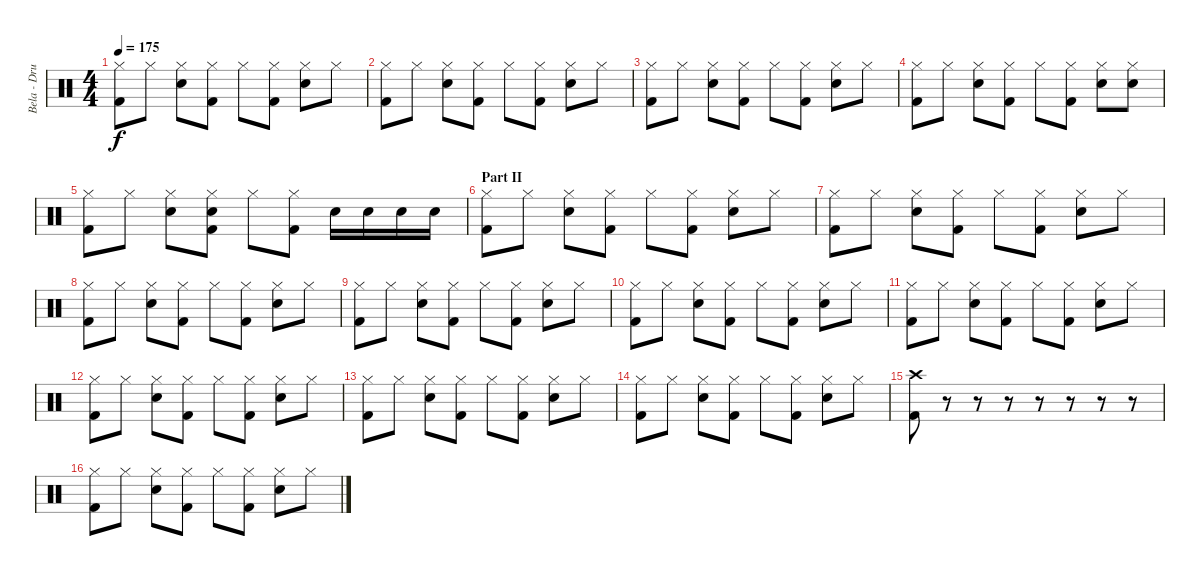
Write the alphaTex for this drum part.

\track ("Bela - Drums" "Bela - Dru") {instrument percussion}
\staff {score}
\articulation defaults
\ts (4 4)
\tempo 175
\clef neutral
\ks c
("Hi-Hat (closed)" "Kick (hit) 2").8{dy f} "Hi-Hat (closed)".8 ("Hi-Hat (closed)" "Electric Snare (hit)").8 ("Hi-Hat (closed)" "Kick (hit) 2").8 "Hi-Hat (closed)".8 ("Hi-Hat (closed)" "Kick (hit) 2").8 ("Hi-Hat (closed)" "Electric Snare (hit)").8 "Hi-Hat (closed)".8 |
("Hi-Hat (closed)" "Kick (hit) 2").8 "Hi-Hat (closed)".8 ("Hi-Hat (closed)" "Electric Snare (hit)").8 ("Hi-Hat (closed)" "Kick (hit) 2").8 "Hi-Hat (closed)".8 ("Hi-Hat (closed)" "Kick (hit) 2").8 ("Hi-Hat (closed)" "Electric Snare (hit)").8 "Hi-Hat (closed)".8 |
("Hi-Hat (closed)" "Kick (hit) 2").8 "Hi-Hat (closed)".8 ("Hi-Hat (closed)" "Electric Snare (hit)").8 ("Hi-Hat (closed)" "Kick (hit) 2").8 "Hi-Hat (closed)".8 ("Hi-Hat (closed)" "Kick (hit) 2").8 ("Hi-Hat (closed)" "Electric Snare (hit)").8 "Hi-Hat (closed)".8 |
("Hi-Hat (closed)" "Kick (hit) 2").8 "Hi-Hat (closed)".8 ("Hi-Hat (closed)" "Electric Snare (hit)").8 ("Hi-Hat (closed)" "Kick (hit) 2").8 "Hi-Hat (closed)".8 ("Hi-Hat (closed)" "Kick (hit) 2").8 ("Hi-Hat (closed)" "Electric Snare (hit)").8 ("Hi-Hat (closed)" "Electric Snare (hit)").8 |
("Hi-Hat (closed)" "Kick (hit) 2").8 "Hi-Hat (closed)".8 ("Hi-Hat (closed)" "Electric Snare (hit)").8 ("Hi-Hat (closed)" "Electric Snare (hit)" "Kick (hit) 2").8 "Hi-Hat (closed)".8 ("Hi-Hat (closed)" "Kick (hit) 2").8 "Electric Snare (hit)".16 "Electric Snare (hit)".16 "Electric Snare (hit)".16 "Electric Snare (hit)".16 |
\section ("" "Part II")
("Hi-Hat (closed)" "Kick (hit) 2").8 "Hi-Hat (closed)".8 ("Hi-Hat (closed)" "Electric Snare (hit)").8 ("Hi-Hat (closed)" "Kick (hit) 2").8 "Hi-Hat (closed)".8 ("Hi-Hat (closed)" "Kick (hit) 2").8 ("Hi-Hat (closed)" "Electric Snare (hit)").8 "Hi-Hat (closed)".8 |
("Hi-Hat (closed)" "Kick (hit) 2").8 "Hi-Hat (closed)".8 ("Hi-Hat (closed)" "Electric Snare (hit)").8 ("Hi-Hat (closed)" "Kick (hit) 2").8 "Hi-Hat (closed)".8 ("Hi-Hat (closed)" "Kick (hit) 2").8 ("Hi-Hat (closed)" "Electric Snare (hit)").8 "Hi-Hat (closed)".8 |
("Hi-Hat (closed)" "Kick (hit) 2").8 "Hi-Hat (closed)".8 ("Hi-Hat (closed)" "Electric Snare (hit)").8 ("Hi-Hat (closed)" "Kick (hit) 2").8 "Hi-Hat (closed)".8 ("Hi-Hat (closed)" "Kick (hit) 2").8 ("Hi-Hat (closed)" "Electric Snare (hit)").8 "Hi-Hat (closed)".8 |
("Hi-Hat (closed)" "Kick (hit) 2").8 "Hi-Hat (closed)".8 ("Hi-Hat (closed)" "Electric Snare (hit)").8 ("Hi-Hat (closed)" "Kick (hit) 2").8 "Hi-Hat (closed)".8 ("Hi-Hat (closed)" "Kick (hit) 2").8 ("Hi-Hat (closed)" "Electric Snare (hit)").8 "Hi-Hat (closed)".8 |
("Hi-Hat (closed)" "Kick (hit) 2").8 "Hi-Hat (closed)".8 ("Hi-Hat (closed)" "Electric Snare (hit)").8 ("Hi-Hat (closed)" "Kick (hit) 2").8 "Hi-Hat (closed)".8 ("Hi-Hat (closed)" "Kick (hit) 2").8 ("Hi-Hat (closed)" "Electric Snare (hit)").8 "Hi-Hat (closed)".8 |
("Hi-Hat (closed)" "Kick (hit) 2").8 "Hi-Hat (closed)".8 ("Hi-Hat (closed)" "Electric Snare (hit)").8 ("Hi-Hat (closed)" "Kick (hit) 2").8 "Hi-Hat (closed)".8 ("Hi-Hat (closed)" "Kick (hit) 2").8 ("Hi-Hat (closed)" "Electric Snare (hit)").8 "Hi-Hat (closed)".8 |
("Hi-Hat (closed)" "Kick (hit) 2").8 "Hi-Hat (closed)".8 ("Hi-Hat (closed)" "Electric Snare (hit)").8 ("Hi-Hat (closed)" "Kick (hit) 2").8 "Hi-Hat (closed)".8 ("Hi-Hat (closed)" "Kick (hit) 2").8 ("Hi-Hat (closed)" "Electric Snare (hit)").8 "Hi-Hat (closed)".8 |
("Hi-Hat (closed)" "Kick (hit) 2").8 "Hi-Hat (closed)".8 ("Hi-Hat (closed)" "Electric Snare (hit)").8 ("Hi-Hat (closed)" "Kick (hit) 2").8 "Hi-Hat (closed)".8 ("Hi-Hat (closed)" "Kick (hit) 2").8 ("Hi-Hat (closed)" "Electric Snare (hit)").8 "Hi-Hat (closed)".8 |
("Hi-Hat (closed)" "Kick (hit) 2").8 "Hi-Hat (closed)".8 ("Hi-Hat (closed)" "Electric Snare (hit)").8 ("Hi-Hat (closed)" "Kick (hit) 2").8 "Hi-Hat (closed)".8 ("Hi-Hat (closed)" "Kick (hit) 2").8 ("Hi-Hat (closed)" "Electric Snare (hit)").8 "Hi-Hat (closed)".8 |
("Crash high (hit)" "Kick (hit) 2").8 r.8 r.8 r.8 r.8 r.8 r.8 r.8 |
("Hi-Hat (closed)" "Kick (hit) 2").8 "Hi-Hat (closed)".8 ("Hi-Hat (closed)" "Electric Snare (hit)").8 ("Hi-Hat (closed)" "Kick (hit) 2").8 "Hi-Hat (closed)".8 ("Hi-Hat (closed)" "Kick (hit) 2").8 ("Hi-Hat (closed)" "Electric Snare (hit)").8 "Hi-Hat (closed)".8
